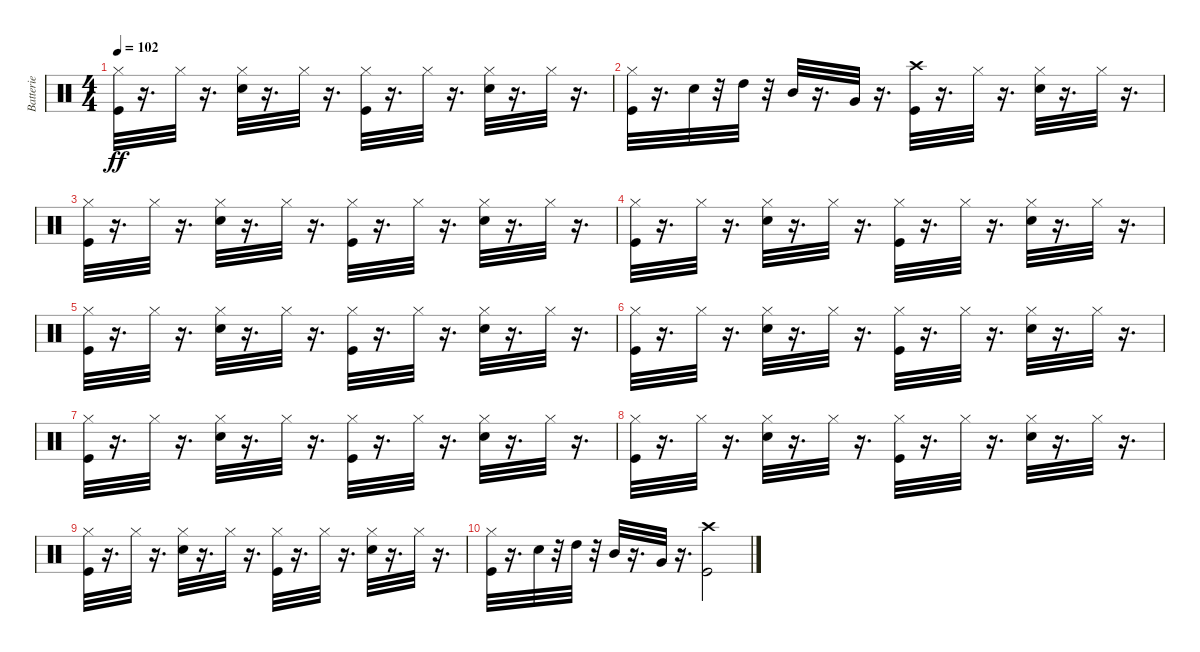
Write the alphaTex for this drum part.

\track ("Batterie" "Batterie") {instrument percussion}
\staff {score}
\articulation defaults
\ts (4 4)
\tempo 102
\clef neutral
\ks c
("Kick (hit)" "Hi-Hat (closed)").32{dy ff} r.16{d} "Hi-Hat (closed)".32 r.16{d} ("Hi-Hat (closed)" "Electric Snare (hit)").32 r.16{d} "Hi-Hat (closed)".32 r.16{d} ("Kick (hit)" "Hi-Hat (closed)").32 r.16{d} "Hi-Hat (closed)".32 r.16{d} ("Hi-Hat (closed)" "Electric Snare (hit)").32 r.16{d} "Hi-Hat (closed)".32 r.16{d} |
("Kick (hit)" "Hi-Hat (closed)").32 r.16{d} "Electric Snare (hit)".32 r.32 "High Tom (hit)".32 r.32 "Mid Tom (hit)".32 r.16{d} "Very Low Tom (hit)".32 r.16{d} ("Kick (hit)" "Crash high (hit)").32 r.16{d} "Hi-Hat (closed)".32 r.16{d} ("Hi-Hat (closed)" "Electric Snare (hit)").32 r.16{d} "Hi-Hat (closed)".32 r.16{d} |
("Kick (hit)" "Hi-Hat (closed)").32 r.16{d} "Hi-Hat (closed)".32 r.16{d} ("Hi-Hat (closed)" "Electric Snare (hit)").32 r.16{d} "Hi-Hat (closed)".32 r.16{d} ("Kick (hit)" "Hi-Hat (closed)").32 r.16{d} "Hi-Hat (closed)".32 r.16{d} ("Hi-Hat (closed)" "Electric Snare (hit)").32 r.16{d} "Hi-Hat (closed)".32 r.16{d} |
("Kick (hit)" "Hi-Hat (closed)").32 r.16{d} "Hi-Hat (closed)".32 r.16{d} ("Hi-Hat (closed)" "Electric Snare (hit)").32 r.16{d} "Hi-Hat (closed)".32 r.16{d} ("Kick (hit)" "Hi-Hat (closed)").32 r.16{d} "Hi-Hat (closed)".32 r.16{d} ("Hi-Hat (closed)" "Electric Snare (hit)").32 r.16{d} "Hi-Hat (closed)".32 r.16{d} |
("Kick (hit)" "Hi-Hat (closed)").32 r.16{d} "Hi-Hat (closed)".32 r.16{d} ("Hi-Hat (closed)" "Electric Snare (hit)").32 r.16{d} "Hi-Hat (closed)".32 r.16{d} ("Kick (hit)" "Hi-Hat (closed)").32 r.16{d} "Hi-Hat (closed)".32 r.16{d} ("Hi-Hat (closed)" "Electric Snare (hit)").32 r.16{d} "Hi-Hat (closed)".32 r.16{d} |
("Kick (hit)" "Hi-Hat (closed)").32 r.16{d} "Hi-Hat (closed)".32 r.16{d} ("Hi-Hat (closed)" "Electric Snare (hit)").32 r.16{d} "Hi-Hat (closed)".32 r.16{d} ("Kick (hit)" "Hi-Hat (closed)").32 r.16{d} "Hi-Hat (closed)".32 r.16{d} ("Hi-Hat (closed)" "Electric Snare (hit)").32 r.16{d} "Hi-Hat (closed)".32 r.16{d} |
("Kick (hit)" "Hi-Hat (closed)").32 r.16{d} "Hi-Hat (closed)".32 r.16{d} ("Hi-Hat (closed)" "Electric Snare (hit)").32 r.16{d} "Hi-Hat (closed)".32 r.16{d} ("Kick (hit)" "Hi-Hat (closed)").32 r.16{d} "Hi-Hat (closed)".32 r.16{d} ("Hi-Hat (closed)" "Electric Snare (hit)").32 r.16{d} "Hi-Hat (closed)".32 r.16{d} |
("Kick (hit)" "Hi-Hat (closed)").32 r.16{d} "Hi-Hat (closed)".32 r.16{d} ("Hi-Hat (closed)" "Electric Snare (hit)").32 r.16{d} "Hi-Hat (closed)".32 r.16{d} ("Kick (hit)" "Hi-Hat (closed)").32 r.16{d} "Hi-Hat (closed)".32 r.16{d} ("Hi-Hat (closed)" "Electric Snare (hit)").32 r.16{d} "Hi-Hat (closed)".32 r.16{d} |
("Kick (hit)" "Hi-Hat (closed)").32 r.16{d} "Hi-Hat (closed)".32 r.16{d} ("Hi-Hat (closed)" "Electric Snare (hit)").32 r.16{d} "Hi-Hat (closed)".32 r.16{d} ("Kick (hit)" "Hi-Hat (closed)").32 r.16{d} "Hi-Hat (closed)".32 r.16{d} ("Hi-Hat (closed)" "Electric Snare (hit)").32 r.16{d} "Hi-Hat (closed)".32 r.16{d} |
("Kick (hit)" "Hi-Hat (closed)").32 r.16{d} "Electric Snare (hit)".32 r.32 "High Tom (hit)".32 r.32 "Mid Tom (hit)".32 r.16{d} "Very Low Tom (hit)".32 r.16{d} ("Kick (hit)" "Crash high (hit)").2
